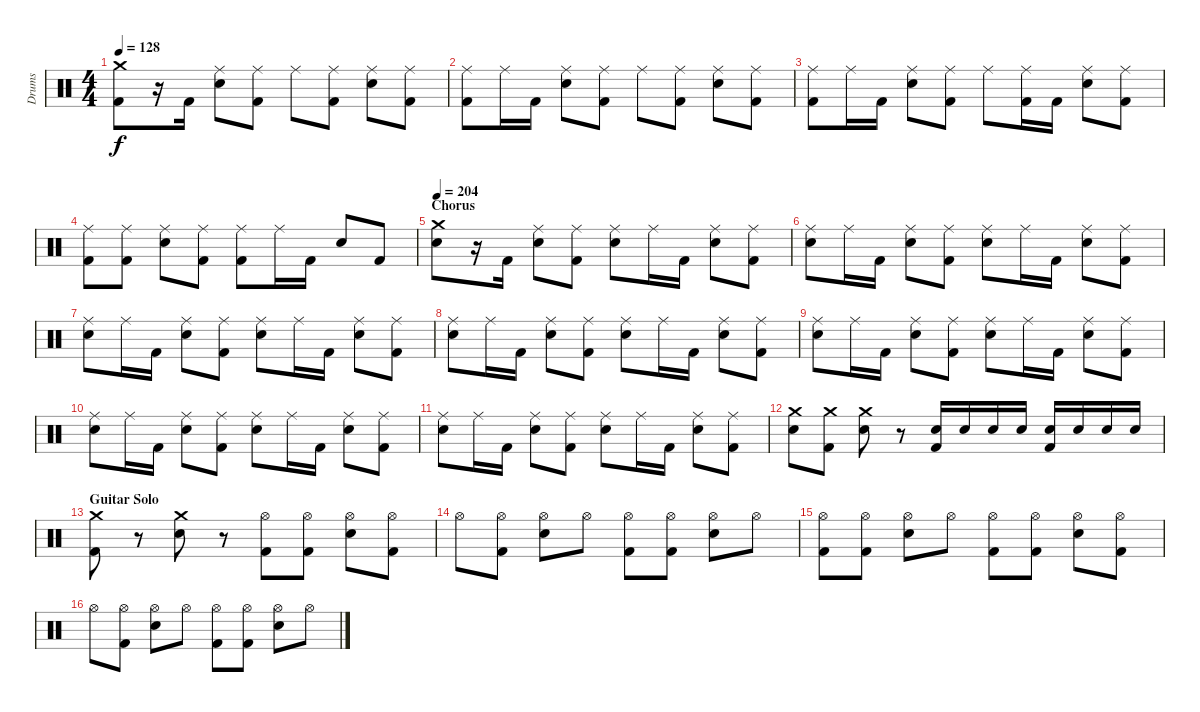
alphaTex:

\track ("Drums" "Drums") {instrument percussion}
\staff {score}
\articulation defaults
\ts (4 4)
\tempo 128
\clef neutral
\ks c
("Crash medium (hit)" "Kick (hit) 2").8{dy f} r.16 "Kick (hit) 2".16 ("Ride (middle)" "Snare (hit) 2").8 ("Ride (middle)" "Kick (hit) 2").8 "Ride (middle)".8 ("Ride (middle)" "Kick (hit) 2").8 ("Ride (middle)" "Snare (hit) 2").8 ("Ride (middle)" "Kick (hit) 2").8 |
("Ride (middle)" "Kick (hit) 2").8 "Ride (middle)".16 "Kick (hit) 2".16 ("Ride (middle)" "Snare (hit) 2").8 ("Ride (middle)" "Kick (hit) 2").8 "Ride (middle)".8 ("Ride (middle)" "Kick (hit) 2").8 ("Ride (middle)" "Snare (hit) 2").8 ("Ride (middle)" "Kick (hit) 2").8 |
("Ride (middle)" "Kick (hit) 2").8 "Ride (middle)".16 "Kick (hit) 2".16 ("Ride (middle)" "Snare (hit) 2").8 ("Ride (middle)" "Kick (hit) 2").8 "Ride (middle)".8 ("Ride (middle)" "Kick (hit) 2").16 "Kick (hit) 2".16 ("Ride (middle)" "Snare (hit) 2").8 ("Ride (middle)" "Kick (hit) 2").8 |
("Ride (middle)" "Kick (hit) 2").8 ("Ride (middle)" "Kick (hit) 2").8 ("Ride (middle)" "Snare (hit) 2").8 ("Ride (middle)" "Kick (hit) 2").8 ("Ride (middle)" "Kick (hit) 2").8 "Ride (middle)".16 "Kick (hit) 2".16 "Snare (hit) 2".8 "Kick (hit) 2".8 |
\section ("" "Chorus")
\tempo 204
("Crash medium (hit)" "Snare (hit) 2").8 r.16 "Kick (hit) 2".16 ("Ride (middle)" "Snare (hit) 2").8 ("Ride (middle)" "Kick (hit) 2").8 ("Ride (middle)" "Snare (hit) 2").8 "Ride (middle)".16 "Kick (hit) 2".16 ("Ride (middle)" "Snare (hit) 2").8 ("Ride (middle)" "Kick (hit) 2").8 |
("Ride (middle)" "Snare (hit) 2").8 "Ride (middle)".16 "Kick (hit) 2".16 ("Ride (middle)" "Snare (hit) 2").8 ("Ride (middle)" "Kick (hit) 2").8 ("Ride (middle)" "Snare (hit) 2").8 "Ride (middle)".16 "Kick (hit) 2".16 ("Ride (middle)" "Snare (hit) 2").8 ("Ride (middle)" "Kick (hit) 2").8 |
("Ride (middle)" "Snare (hit) 2").8 "Ride (middle)".16 "Kick (hit) 2".16 ("Ride (middle)" "Snare (hit) 2").8 ("Ride (middle)" "Kick (hit) 2").8 ("Ride (middle)" "Snare (hit) 2").8 "Ride (middle)".16 "Kick (hit) 2".16 ("Ride (middle)" "Snare (hit) 2").8 ("Ride (middle)" "Kick (hit) 2").8 |
("Ride (middle)" "Snare (hit) 2").8 "Ride (middle)".16 "Kick (hit) 2".16 ("Ride (middle)" "Snare (hit) 2").8 ("Ride (middle)" "Kick (hit) 2").8 ("Ride (middle)" "Snare (hit) 2").8 "Ride (middle)".16 "Kick (hit) 2".16 ("Ride (middle)" "Snare (hit) 2").8 ("Ride (middle)" "Kick (hit) 2").8 |
("Ride (middle)" "Snare (hit) 2").8 "Ride (middle)".16 "Kick (hit) 2".16 ("Ride (middle)" "Snare (hit) 2").8 ("Ride (middle)" "Kick (hit) 2").8 ("Ride (middle)" "Snare (hit) 2").8 "Ride (middle)".16 "Kick (hit) 2".16 ("Ride (middle)" "Snare (hit) 2").8 ("Ride (middle)" "Kick (hit) 2").8 |
("Ride (middle)" "Snare (hit) 2").8 "Ride (middle)".16 "Kick (hit) 2".16 ("Ride (middle)" "Snare (hit) 2").8 ("Ride (middle)" "Kick (hit) 2").8 ("Ride (middle)" "Snare (hit) 2").8 "Ride (middle)".16 "Kick (hit) 2".16 ("Ride (middle)" "Snare (hit) 2").8 ("Ride (middle)" "Kick (hit) 2").8 |
("Ride (middle)" "Snare (hit) 2").8 "Ride (middle)".16 "Kick (hit) 2".16 ("Ride (middle)" "Snare (hit) 2").8 ("Ride (middle)" "Kick (hit) 2").8 ("Ride (middle)" "Snare (hit) 2").8 "Ride (middle)".16 "Kick (hit) 2".16 ("Ride (middle)" "Snare (hit) 2").8 ("Ride (middle)" "Kick (hit) 2").8 |
("Crash medium (hit)" "Snare (hit) 2").8 ("Crash medium (hit)" "Kick (hit) 2").8 ("Crash medium (hit)" "Snare (hit) 2").8 r.8 ("Snare (hit) 2" "Kick (hit) 2").16 "Snare (hit) 2".16 "Snare (hit) 2".16 "Snare (hit) 2".16 ("Snare (hit) 2" "Kick (hit) 2").16 "Snare (hit) 2".16 "Snare (hit) 2".16 "Snare (hit) 2".16 |
\section ("" "Guitar Solo")
("Crash medium (hit)" "Kick (hit) 2").8 r.8 ("Crash medium (hit)" "Snare (hit) 2").8 r.8 ("Hi-Hat (open)" "Kick (hit) 2").8 ("Hi-Hat (open)" "Kick (hit) 2").8 ("Hi-Hat (open)" "Snare (hit) 2").8 ("Hi-Hat (open)" "Kick (hit) 2").8 |
"Hi-Hat (open)".8 ("Hi-Hat (open)" "Kick (hit) 2").8 ("Hi-Hat (open)" "Snare (hit) 2").8 "Hi-Hat (open)".8 ("Hi-Hat (open)" "Kick (hit) 2").8 ("Hi-Hat (open)" "Kick (hit) 2").8 ("Hi-Hat (open)" "Snare (hit) 2").8 "Hi-Hat (open)".8 |
("Hi-Hat (open)" "Kick (hit) 2").8 ("Hi-Hat (open)" "Kick (hit) 2").8 ("Hi-Hat (open)" "Snare (hit) 2").8 "Hi-Hat (open)".8 ("Hi-Hat (open)" "Kick (hit) 2").8 ("Hi-Hat (open)" "Kick (hit) 2").8 ("Hi-Hat (open)" "Snare (hit) 2").8 ("Hi-Hat (open)" "Kick (hit) 2").8 |
"Hi-Hat (open)".8 ("Hi-Hat (open)" "Kick (hit) 2").8 ("Hi-Hat (open)" "Snare (hit) 2").8 "Hi-Hat (open)".8 ("Hi-Hat (open)" "Kick (hit) 2").8 ("Hi-Hat (open)" "Kick (hit) 2").8 ("Hi-Hat (open)" "Snare (hit) 2").8 "Hi-Hat (open)".8
